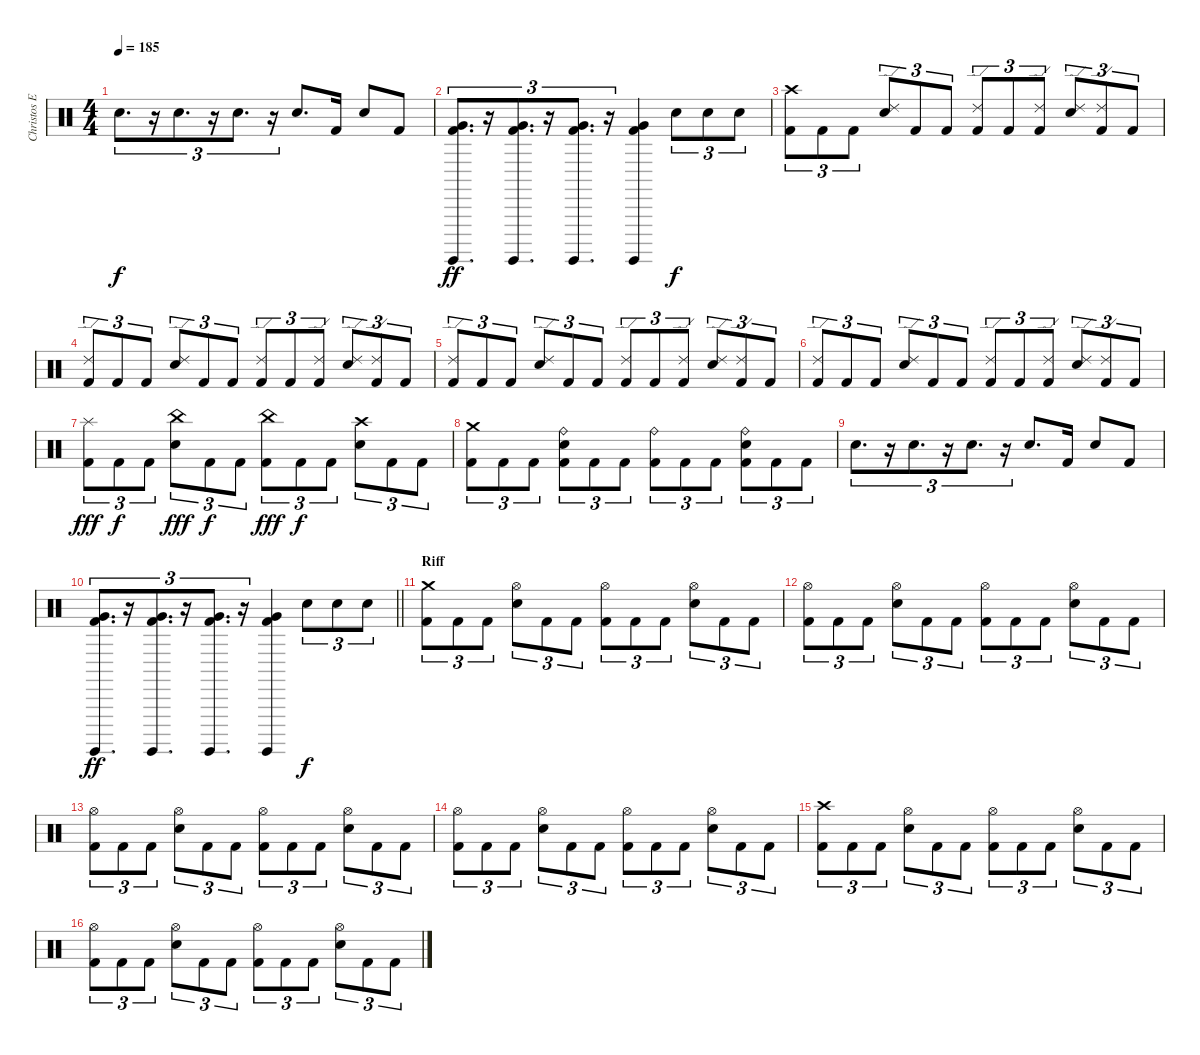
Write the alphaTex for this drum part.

\track ("Christos Ephitimiadis (drums)" "Christos E") {instrument percussion}
\staff {score}
\articulation defaults
\ts (4 4)
\tempo 185
\clef neutral
\ks c "Snare (hit) 2".8{d tu (3 2) dy f}
r.16{tu (3 2)} "Snare (hit) 2".8{d tu (3 2)} r.16{tu (3 2)} "Snare (hit) 2".8{d tu (3 2)} r.16{tu (3 2)} "Snare (hit) 2".8{d} "Kick (hit) 2".16 "Snare (hit) 2".8 "Kick (hit) 2".8 |
("Surdo (hit)" "Very Low Tom (hit)" "Kick (hit) 2").8{d tu (3 2) dy ff} r.16{tu (3 2)} ("Surdo (hit)" "Very Low Tom (hit)" "Kick (hit) 2").8{d tu (3 2)} r.16{tu (3 2)} ("Surdo (hit)" "Very Low Tom (hit)" "Kick (hit) 2").8{d tu (3 2)} r.16{tu (3 2)} ("Surdo (hit)" "Very Low Tom (hit)" "Kick (hit) 2").4 "Snare (hit) 2".8{tu (3 2) dy f} "Snare (hit) 2".8{tu (3 2)} "Snare (hit) 2".8{tu (3 2)} |
("Crash high (hit)" "Kick (hit) 2").8{tu (3 2)} "Kick (hit) 2".8{tu (3 2)} "Kick (hit) 2".8{tu (3 2)} ("Ride (edge) 2" "Snare (hit) 2").8{tu (3 2)} "Kick (hit) 2".8{tu (3 2)} "Kick (hit) 2".8{tu (3 2)} ("Ride (edge) 2" "Kick (hit) 2").8{tu (3 2)} "Kick (hit) 2".8{tu (3 2)} ("Ride (edge) 2" "Kick (hit) 2").8{tu (3 2)} ("Ride (edge) 2" "Snare (hit) 2").8{tu (3 2)} ("Ride (edge) 2" "Kick (hit) 2").8{tu (3 2)} "Kick (hit) 2".8{tu (3 2)} |
("Ride (edge) 2" "Kick (hit) 2").8{tu (3 2)} "Kick (hit) 2".8{tu (3 2)} "Kick (hit) 2".8{tu (3 2)} ("Ride (edge) 2" "Snare (hit) 2").8{tu (3 2)} "Kick (hit) 2".8{tu (3 2)} "Kick (hit) 2".8{tu (3 2)} ("Ride (edge) 2" "Kick (hit) 2").8{tu (3 2)} "Kick (hit) 2".8{tu (3 2)} ("Ride (edge) 2" "Kick (hit) 2").8{tu (3 2)} ("Ride (edge) 2" "Snare (hit) 2").8{tu (3 2)} ("Ride (edge) 2" "Kick (hit) 2").8{tu (3 2)} "Kick (hit) 2".8{tu (3 2)} |
("Ride (edge) 2" "Kick (hit) 2").8{tu (3 2)} "Kick (hit) 2".8{tu (3 2)} "Kick (hit) 2".8{tu (3 2)} ("Ride (edge) 2" "Snare (hit) 2").8{tu (3 2)} "Kick (hit) 2".8{tu (3 2)} "Kick (hit) 2".8{tu (3 2)} ("Ride (edge) 2" "Kick (hit) 2").8{tu (3 2)} "Kick (hit) 2".8{tu (3 2)} ("Ride (edge) 2" "Kick (hit) 2").8{tu (3 2)} ("Ride (edge) 2" "Snare (hit) 2").8{tu (3 2)} ("Ride (edge) 2" "Kick (hit) 2").8{tu (3 2)} "Kick (hit) 2".8{tu (3 2)} |
("Ride (edge) 2" "Kick (hit) 2").8{tu (3 2)} "Kick (hit) 2".8{tu (3 2)} "Kick (hit) 2".8{tu (3 2)} ("Ride (edge) 2" "Snare (hit) 2").8{tu (3 2)} "Kick (hit) 2".8{tu (3 2)} "Kick (hit) 2".8{tu (3 2)} ("Ride (edge) 2" "Kick (hit) 2").8{tu (3 2)} "Kick (hit) 2".8{tu (3 2)} ("Ride (edge) 2" "Kick (hit) 2").8{tu (3 2)} ("Ride (edge) 2" "Snare (hit) 2").8{tu (3 2)} ("Ride (edge) 2" "Kick (hit) 2").8{tu (3 2)} "Kick (hit) 2".8{tu (3 2)} |
("Splash (hit)" "Kick (hit) 2").8{tu (3 2) dy fff} "Kick (hit) 2".8{tu (3 2) dy f} "Kick (hit) 2".8{tu (3 2)} ("China (hit)" "Snare (hit) 2").8{tu (3 2) dy fff} "Kick (hit) 2".8{tu (3 2) dy f} "Kick (hit) 2".8{tu (3 2)} ("China (hit)" "Kick (hit) 2").8{tu (3 2) dy fff} "Kick (hit) 2".8{tu (3 2) dy f} "Kick (hit) 2".8{tu (3 2)} ("Crash high (hit)" "Snare (hit) 2").8{tu (3 2)} "Kick (hit) 2".8{tu (3 2)} "Kick (hit) 2".8{tu (3 2)} |
("Crash medium (hit)" "Kick (hit) 2").8{tu (3 2)} "Kick (hit) 2".8{tu (3 2)} "Kick (hit) 2".8{tu (3 2)} ("Ride (bell)" "Snare (hit) 2" "Kick (hit) 2").8{tu (3 2)} "Kick (hit) 2".8{tu (3 2)} "Kick (hit) 2".8{tu (3 2)} ("Ride (bell)" "Kick (hit) 2").8{tu (3 2)} "Kick (hit) 2".8{tu (3 2)} "Kick (hit) 2".8{tu (3 2)} ("Ride (bell)" "Snare (hit) 2" "Kick (hit) 2").8{tu (3 2)} "Kick (hit) 2".8{tu (3 2)} "Kick (hit) 2".8{tu (3 2)} |
"Snare (hit) 2".8{d tu (3 2)} r.16{tu (3 2)} "Snare (hit) 2".8{d tu (3 2)} r.16{tu (3 2)} "Snare (hit) 2".8{d tu (3 2)} r.16{tu (3 2)} "Snare (hit) 2".8{d} "Kick (hit) 2".16 "Snare (hit) 2".8 "Kick (hit) 2".8 |
\barLineRight lightlight
("Surdo (hit)" "Very Low Tom (hit)" "Kick (hit) 2").8{d tu (3 2) dy ff} r.16{tu (3 2)} ("Surdo (hit)" "Very Low Tom (hit)" "Kick (hit) 2").8{d tu (3 2)} r.16{tu (3 2)} ("Surdo (hit)" "Very Low Tom (hit)" "Kick (hit) 2").8{d tu (3 2)} r.16{tu (3 2)} ("Surdo (hit)" "Very Low Tom (hit)" "Kick (hit) 2").4 "Snare (hit) 2".8{tu (3 2) dy f} "Snare (hit) 2".8{tu (3 2)} "Snare (hit) 2".8{tu (3 2)} |
\section ("" "Riff")
("Crash medium (hit)" "Kick (hit) 2").8{tu (3 2)} "Kick (hit) 2".8{tu (3 2)} "Kick (hit) 2".8{tu (3 2)} ("Hi-Hat (open)" "Snare (hit) 2").8{tu (3 2)} "Kick (hit) 2".8{tu (3 2)} "Kick (hit) 2".8{tu (3 2)} ("Hi-Hat (open)" "Kick (hit) 2").8{tu (3 2)} "Kick (hit) 2".8{tu (3 2)} "Kick (hit) 2".8{tu (3 2)} ("Hi-Hat (open)" "Snare (hit) 2").8{tu (3 2)} "Kick (hit) 2".8{tu (3 2)} "Kick (hit) 2".8{tu (3 2)} |
("Hi-Hat (open)" "Kick (hit) 2").8{tu (3 2)} "Kick (hit) 2".8{tu (3 2)} "Kick (hit) 2".8{tu (3 2)} ("Hi-Hat (open)" "Snare (hit) 2").8{tu (3 2)} "Kick (hit) 2".8{tu (3 2)} "Kick (hit) 2".8{tu (3 2)} ("Hi-Hat (open)" "Kick (hit) 2").8{tu (3 2)} "Kick (hit) 2".8{tu (3 2)} "Kick (hit) 2".8{tu (3 2)} ("Hi-Hat (open)" "Snare (hit) 2").8{tu (3 2)} "Kick (hit) 2".8{tu (3 2)} "Kick (hit) 2".8{tu (3 2)} |
("Hi-Hat (open)" "Kick (hit) 2").8{tu (3 2)} "Kick (hit) 2".8{tu (3 2)} "Kick (hit) 2".8{tu (3 2)} ("Hi-Hat (open)" "Snare (hit) 2").8{tu (3 2)} "Kick (hit) 2".8{tu (3 2)} "Kick (hit) 2".8{tu (3 2)} ("Hi-Hat (open)" "Kick (hit) 2").8{tu (3 2)} "Kick (hit) 2".8{tu (3 2)} "Kick (hit) 2".8{tu (3 2)} ("Hi-Hat (open)" "Snare (hit) 2").8{tu (3 2)} "Kick (hit) 2".8{tu (3 2)} "Kick (hit) 2".8{tu (3 2)} |
("Hi-Hat (open)" "Kick (hit) 2").8{tu (3 2)} "Kick (hit) 2".8{tu (3 2)} "Kick (hit) 2".8{tu (3 2)} ("Hi-Hat (open)" "Snare (hit) 2").8{tu (3 2)} "Kick (hit) 2".8{tu (3 2)} "Kick (hit) 2".8{tu (3 2)} ("Hi-Hat (open)" "Kick (hit) 2").8{tu (3 2)} "Kick (hit) 2".8{tu (3 2)} "Kick (hit) 2".8{tu (3 2)} ("Hi-Hat (open)" "Snare (hit) 2").8{tu (3 2)} "Kick (hit) 2".8{tu (3 2)} "Kick (hit) 2".8{tu (3 2)} |
("Crash high (hit)" "Kick (hit) 2").8{tu (3 2)} "Kick (hit) 2".8{tu (3 2)} "Kick (hit) 2".8{tu (3 2)} ("Hi-Hat (open)" "Snare (hit) 2").8{tu (3 2)} "Kick (hit) 2".8{tu (3 2)} "Kick (hit) 2".8{tu (3 2)} ("Hi-Hat (open)" "Kick (hit) 2").8{tu (3 2)} "Kick (hit) 2".8{tu (3 2)} "Kick (hit) 2".8{tu (3 2)} ("Hi-Hat (open)" "Snare (hit) 2").8{tu (3 2)} "Kick (hit) 2".8{tu (3 2)} "Kick (hit) 2".8{tu (3 2)} |
("Hi-Hat (open)" "Kick (hit) 2").8{tu (3 2)} "Kick (hit) 2".8{tu (3 2)} "Kick (hit) 2".8{tu (3 2)} ("Hi-Hat (open)" "Snare (hit) 2").8{tu (3 2)} "Kick (hit) 2".8{tu (3 2)} "Kick (hit) 2".8{tu (3 2)} ("Hi-Hat (open)" "Kick (hit) 2").8{tu (3 2)} "Kick (hit) 2".8{tu (3 2)} "Kick (hit) 2".8{tu (3 2)} ("Hi-Hat (open)" "Snare (hit) 2").8{tu (3 2)} "Kick (hit) 2".8{tu (3 2)} "Kick (hit) 2".8{tu (3 2)}
